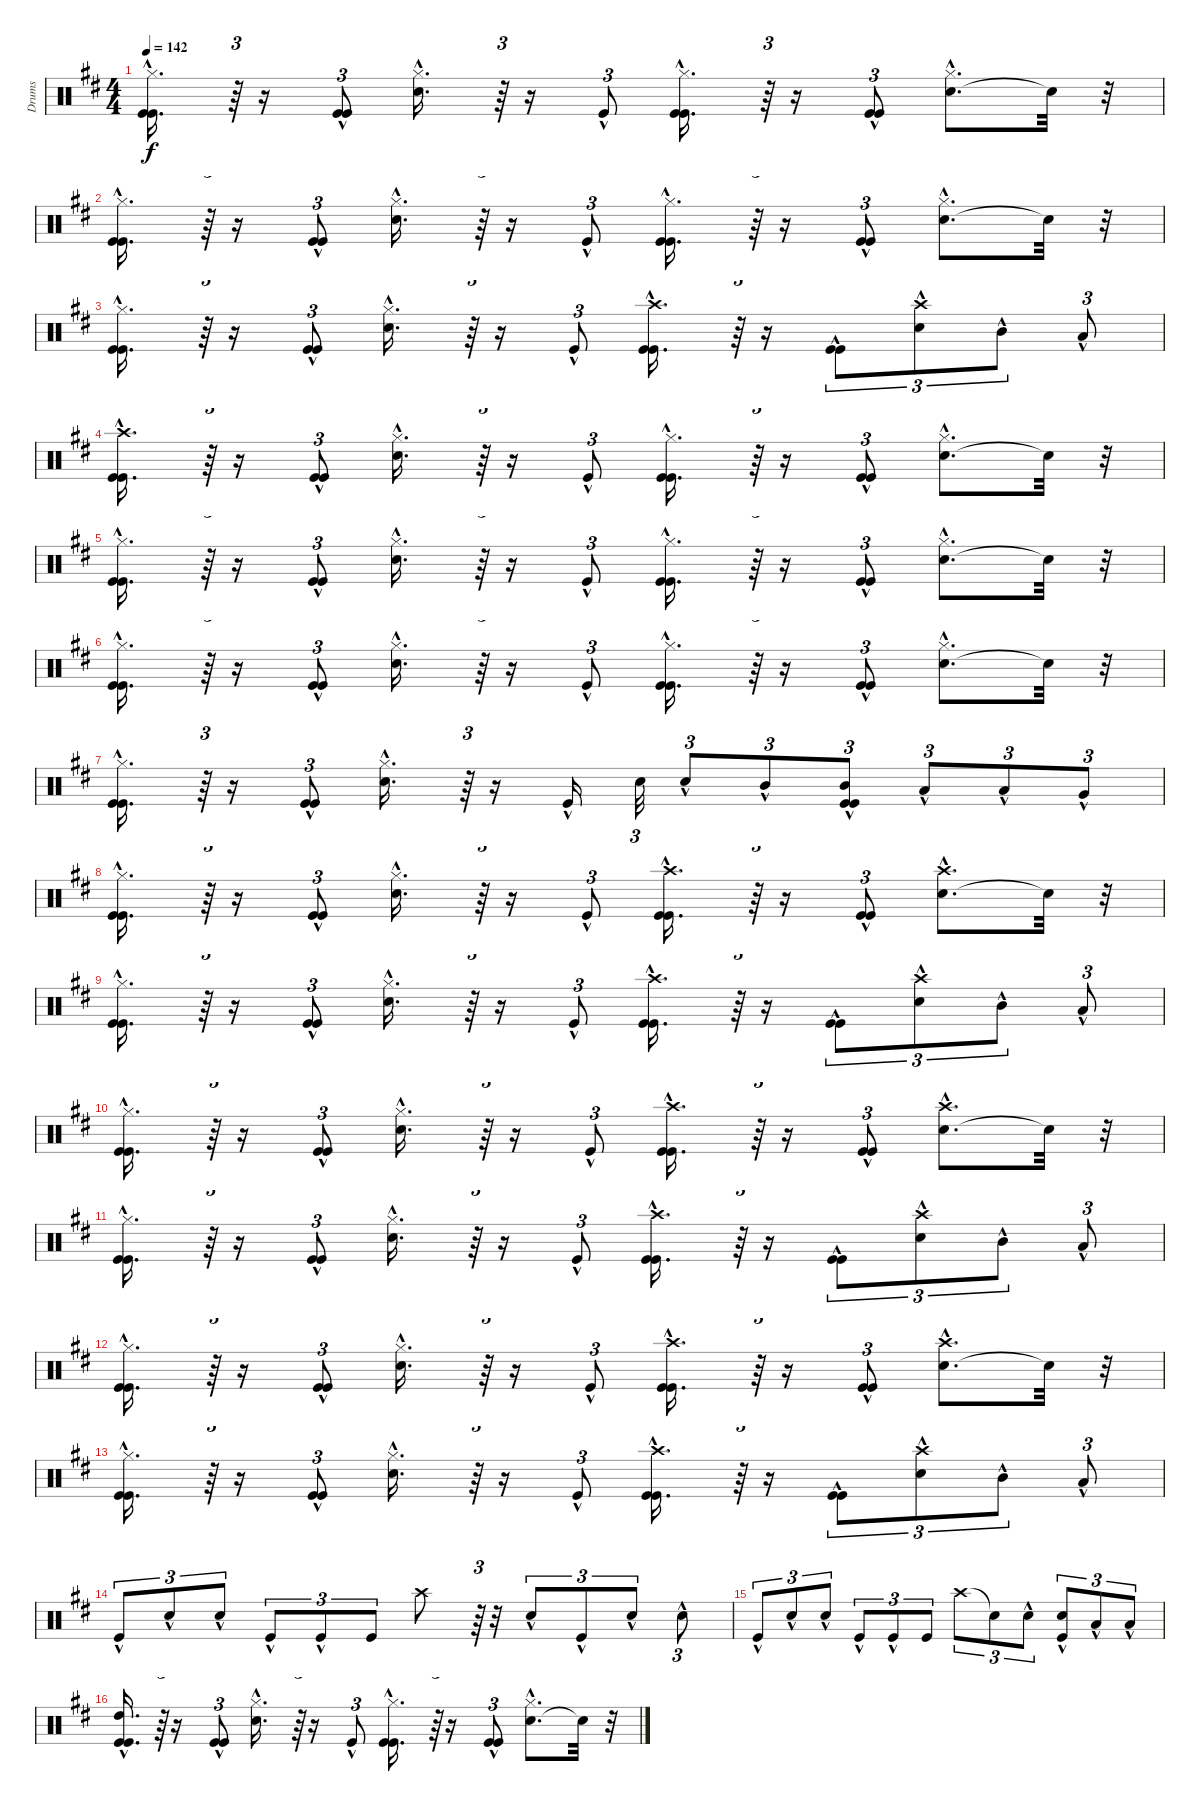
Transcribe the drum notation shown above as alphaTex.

\track ("Drums" "Drums") {instrument percussion}
\staff {score}
\articulation defaults
\ts (4 4)
\tempo 142
\clef neutral
\ks bminor
("Kick (hit)"{hac} "Kick (hit)"{hac} "Hi-Hat (closed)"{hac}).16{d dy f} r.64{tu (3 2)} r.16 ("Kick (hit)"{hac} "Kick (hit)"{hac}).8{tu (3 2)} ("Snare (hit) 2"{hac} "Hi-Hat (closed)"{hac}).16{d} r.64{tu (3 2)} r.16 "Kick (hit)"{hac}.8{tu (3 2)} ("Kick (hit)"{hac} "Kick (hit)"{hac} "Hi-Hat (closed)"{hac}).16{d} r.64{tu (3 2)} r.16 ("Kick (hit)"{hac} "Kick (hit)"{hac}).8{tu (3 2)} ("Snare (hit) 2"{hac} "Hi-Hat (closed)"{hac}).8{d} "Snare (hit)"{t}.32 r.32 |
("Kick (hit)"{hac} "Kick (hit)"{hac} "Hi-Hat (closed)"{hac}).16{d} r.64{tu (3 2)} r.16 ("Kick (hit)"{hac} "Kick (hit)"{hac}).8{tu (3 2)} ("Snare (hit) 2"{hac} "Hi-Hat (closed)"{hac}).16{d} r.64{tu (3 2)} r.16 "Kick (hit)"{hac}.8{tu (3 2)} ("Kick (hit)"{hac} "Kick (hit)"{hac} "Hi-Hat (closed)"{hac}).16{d} r.64{tu (3 2)} r.16 ("Kick (hit)"{hac} "Kick (hit)"{hac}).8{tu (3 2)} ("Snare (hit) 2"{hac} "Hi-Hat (closed)"{hac}).8{d} "Snare (hit)"{t}.32 r.32 |
("Kick (hit)"{hac} "Kick (hit)"{hac} "Hi-Hat (closed)"{hac}).16{d} r.64{tu (3 2)} r.16 ("Kick (hit)"{hac} "Kick (hit)"{hac}).8{tu (3 2)} ("Snare (hit) 2"{hac} "Hi-Hat (closed)"{hac}).16{d} r.64{tu (3 2)} r.16 "Kick (hit)"{hac}.8{tu (3 2)} ("Kick (hit)"{hac} "Kick (hit)"{hac} "Crash high (hit)"{hac}).16{d} r.64{tu (3 2)} r.16 ("Kick (hit)"{hac} "Kick (hit)"{hac}).8{tu (3 2)} ("Snare (hit) 2"{hac} "Crash high (hit)"{hac}).8{tu (3 2)} "Mid Tom (hit)"{hac}.8{tu (3 2)} "Low Tom (hit)"{hac}.8{tu (3 2)} |
("Kick (hit)"{hac} "Kick (hit)"{hac} "Crash high (hit)"{hac}).16{d} r.64{tu (3 2)} r.16 ("Kick (hit)"{hac} "Kick (hit)"{hac}).8{tu (3 2)} ("Snare (hit) 2"{hac} "Hi-Hat (closed)"{hac}).16{d} r.64{tu (3 2)} r.16 "Kick (hit)"{hac}.8{tu (3 2)} ("Kick (hit)"{hac} "Kick (hit)"{hac} "Hi-Hat (closed)"{hac}).16{d} r.64{tu (3 2)} r.16 ("Kick (hit)"{hac} "Kick (hit)"{hac}).8{tu (3 2)} ("Snare (hit) 2"{hac} "Hi-Hat (closed)"{hac}).8{d} "Snare (hit)"{t}.32 r.32 |
("Kick (hit)"{hac} "Kick (hit)"{hac} "Hi-Hat (closed)"{hac}).16{d} r.64{tu (3 2)} r.16 ("Kick (hit)"{hac} "Kick (hit)"{hac}).8{tu (3 2)} ("Snare (hit) 2"{hac} "Hi-Hat (closed)"{hac}).16{d} r.64{tu (3 2)} r.16 "Kick (hit)"{hac}.8{tu (3 2)} ("Kick (hit)"{hac} "Kick (hit)"{hac} "Hi-Hat (closed)"{hac}).16{d} r.64{tu (3 2)} r.16 ("Kick (hit)"{hac} "Kick (hit)"{hac}).8{tu (3 2)} ("Snare (hit) 2"{hac} "Hi-Hat (closed)"{hac}).8{d} "Snare (hit)"{t}.32 r.32 |
("Kick (hit)"{hac} "Kick (hit)"{hac} "Hi-Hat (closed)"{hac}).16{d} r.64{tu (3 2)} r.16 ("Kick (hit)"{hac} "Kick (hit)"{hac}).8{tu (3 2)} ("Snare (hit) 2"{hac} "Hi-Hat (closed)"{hac}).16{d} r.64{tu (3 2)} r.16 "Kick (hit)"{hac}.8{tu (3 2)} ("Kick (hit)"{hac} "Kick (hit)"{hac} "Hi-Hat (closed)"{hac}).16{d} r.64{tu (3 2)} r.16 ("Kick (hit)"{hac} "Kick (hit)"{hac}).8{tu (3 2)} ("Snare (hit) 2"{hac} "Hi-Hat (closed)"{hac}).8{d} "Snare (hit)"{t}.32 r.32 |
("Kick (hit)"{hac} "Kick (hit)"{hac} "Hi-Hat (closed)"{hac}).16{d} r.64{tu (3 2)} r.16 ("Kick (hit)"{hac} "Kick (hit)"{hac}).8{tu (3 2)} ("Snare (hit) 2"{hac} "Hi-Hat (closed)"{hac}).16{d} r.64{tu (3 2)} r.16 "Kick (hit)"{hac}.16 "Snare (hit) 2".32{tu (3 2)} "Snare (hit) 2"{hac}.8{tu (3 2)} "Mid Tom (hit)"{hac}.8{tu (3 2)} ("Kick (hit)"{hac} "Kick (hit)"{hac} "Mid Tom (hit)"{hac}).8{tu (3 2)} "Low Tom (hit)"{hac}.8{tu (3 2)} "Low Tom (hit)"{hac}.8{tu (3 2)} "Very Low Tom (hit)"{hac}.8{tu (3 2)} |
("Kick (hit)"{hac} "Kick (hit)"{hac} "Hi-Hat (closed)"{hac}).16{d} r.64{tu (3 2)} r.16 ("Kick (hit)"{hac} "Kick (hit)"{hac}).8{tu (3 2)} ("Snare (hit) 2"{hac} "Hi-Hat (closed)"{hac}).16{d} r.64{tu (3 2)} r.16 "Kick (hit)"{hac}.8{tu (3 2)} ("Kick (hit)"{hac} "Kick (hit)"{hac} "Crash high (hit)"{hac}).16{d} r.64{tu (3 2)} r.16 ("Kick (hit)"{hac} "Kick (hit)"{hac}).8{tu (3 2)} ("Snare (hit) 2"{hac} "Crash high (hit)"{hac}).8{d} "Snare (hit)"{t}.32 r.32 |
("Kick (hit)"{hac} "Kick (hit)"{hac} "Hi-Hat (closed)"{hac}).16{d} r.64{tu (3 2)} r.16 ("Kick (hit)"{hac} "Kick (hit)"{hac}).8{tu (3 2)} ("Snare (hit) 2"{hac} "Hi-Hat (closed)"{hac}).16{d} r.64{tu (3 2)} r.16 "Kick (hit)"{hac}.8{tu (3 2)} ("Kick (hit)"{hac} "Kick (hit)"{hac} "Crash high (hit)"{hac}).16{d} r.64{tu (3 2)} r.16 ("Kick (hit)"{hac} "Kick (hit)"{hac}).8{tu (3 2)} ("Snare (hit) 2"{hac} "Crash high (hit)"{hac}).8{tu (3 2)} "Mid Tom (hit)"{hac}.8{tu (3 2)} "Low Tom (hit)"{hac}.8{tu (3 2)} |
("Kick (hit)"{hac} "Kick (hit)"{hac} "Hi-Hat (closed)"{hac}).16{d} r.64{tu (3 2)} r.16 ("Kick (hit)"{hac} "Kick (hit)"{hac}).8{tu (3 2)} ("Snare (hit) 2"{hac} "Hi-Hat (closed)"{hac}).16{d} r.64{tu (3 2)} r.16 "Kick (hit)"{hac}.8{tu (3 2)} ("Kick (hit)"{hac} "Kick (hit)"{hac} "Crash high (hit)"{hac}).16{d} r.64{tu (3 2)} r.16 ("Kick (hit)"{hac} "Kick (hit)"{hac}).8{tu (3 2)} ("Snare (hit) 2"{hac} "Crash high (hit)"{hac}).8{d} "Snare (hit)"{t}.32 r.32 |
("Kick (hit)"{hac} "Kick (hit)"{hac} "Hi-Hat (closed)"{hac}).16{d} r.64{tu (3 2)} r.16 ("Kick (hit)"{hac} "Kick (hit)"{hac}).8{tu (3 2)} ("Snare (hit) 2"{hac} "Hi-Hat (closed)"{hac}).16{d} r.64{tu (3 2)} r.16 "Kick (hit)"{hac}.8{tu (3 2)} ("Kick (hit)"{hac} "Kick (hit)"{hac} "Crash high (hit)"{hac}).16{d} r.64{tu (3 2)} r.16 ("Kick (hit)"{hac} "Kick (hit)"{hac}).8{tu (3 2)} ("Snare (hit) 2"{hac} "Crash high (hit)"{hac}).8{tu (3 2)} "Mid Tom (hit)"{hac}.8{tu (3 2)} "Low Tom (hit)"{hac}.8{tu (3 2)} |
("Kick (hit)"{hac} "Kick (hit)"{hac} "Hi-Hat (closed)"{hac}).16{d} r.64{tu (3 2)} r.16 ("Kick (hit)"{hac} "Kick (hit)"{hac}).8{tu (3 2)} ("Snare (hit) 2"{hac} "Hi-Hat (closed)"{hac}).16{d} r.64{tu (3 2)} r.16 "Kick (hit)"{hac}.8{tu (3 2)} ("Kick (hit)"{hac} "Kick (hit)"{hac} "Crash high (hit)"{hac}).16{d} r.64{tu (3 2)} r.16 ("Kick (hit)"{hac} "Kick (hit)"{hac}).8{tu (3 2)} ("Snare (hit) 2"{hac} "Crash high (hit)"{hac}).8{d} "Snare (hit)"{t}.32 r.32 |
("Kick (hit)"{hac} "Kick (hit)"{hac} "Hi-Hat (closed)"{hac}).16{d} r.64{tu (3 2)} r.16 ("Kick (hit)"{hac} "Kick (hit)"{hac}).8{tu (3 2)} ("Snare (hit) 2"{hac} "Hi-Hat (closed)"{hac}).16{d} r.64{tu (3 2)} r.16 "Kick (hit)"{hac}.8{tu (3 2)} ("Kick (hit)"{hac} "Kick (hit)"{hac} "Crash high (hit)"{hac}).16{d} r.64{tu (3 2)} r.16 ("Kick (hit)"{hac} "Kick (hit)"{hac}).8{tu (3 2)} ("Snare (hit) 2"{hac} "Crash high (hit)"{hac}).8{tu (3 2)} "Mid Tom (hit)"{hac}.8{tu (3 2)} "Low Tom (hit)"{hac}.8{tu (3 2)} |
"Kick (hit)"{hac}.8{tu (3 2)} "Snare (hit) 2"{hac}.8{tu (3 2)} "Snare (hit) 2"{hac}.8{tu (3 2)} "Kick (hit)"{hac}.8{tu (3 2)} "Kick (hit)"{hac}.8{tu (3 2)} "Kick (hit)".8{tu (3 2)} "Crash high (hit)".8 r.64{tu (3 2)} r.32 "Snare (hit) 2"{hac}.8{tu (3 2)} "Kick (hit)"{hac}.8{tu (3 2)} "Snare (hit) 2"{hac}.8{tu (3 2)} "Snare (hit) 2"{hac}.8{tu (3 2)} |
"Kick (hit)"{hac}.8{tu (3 2)} "Snare (hit) 2"{hac}.8{tu (3 2)} "Snare (hit) 2"{hac}.8{tu (3 2)} "Kick (hit)"{hac}.8{tu (3 2)} "Kick (hit)"{hac}.8{tu (3 2)} "Kick (hit)".8{tu (3 2)} "Crash high (hit)".8{tu (3 2)} "Snare (hit)"{t}.8{tu (3 2)} "Snare (hit) 2"{hac}.8{tu (3 2)} ("Kick (hit)"{hac} "Snare (hit) 2"{hac}).8{tu (3 2)} "Low Floor Tom (hit)"{hac}.8{tu (3 2)} "Low Floor Tom (hit)"{hac}.8{tu (3 2)} |
("Kick (hit)"{hac} "Kick (hit)"{hac} "High Tom (hit)"{hac}).16{d} r.64{tu (3 2)} r.16 ("Kick (hit)"{hac} "Kick (hit)"{hac}).8{tu (3 2)} ("Snare (hit) 2"{hac} "Hi-Hat (closed)"{hac}).16{d} r.64{tu (3 2)} r.16 "Kick (hit)"{hac}.8{tu (3 2)} ("Kick (hit)"{hac} "Kick (hit)"{hac} "Hi-Hat (closed)"{hac}).16{d} r.64{tu (3 2)} r.16 ("Kick (hit)"{hac} "Kick (hit)"{hac}).8{tu (3 2)} ("Snare (hit) 2"{hac} "Hi-Hat (closed)"{hac}).8{d} "Snare (hit)"{t}.32 r.32
